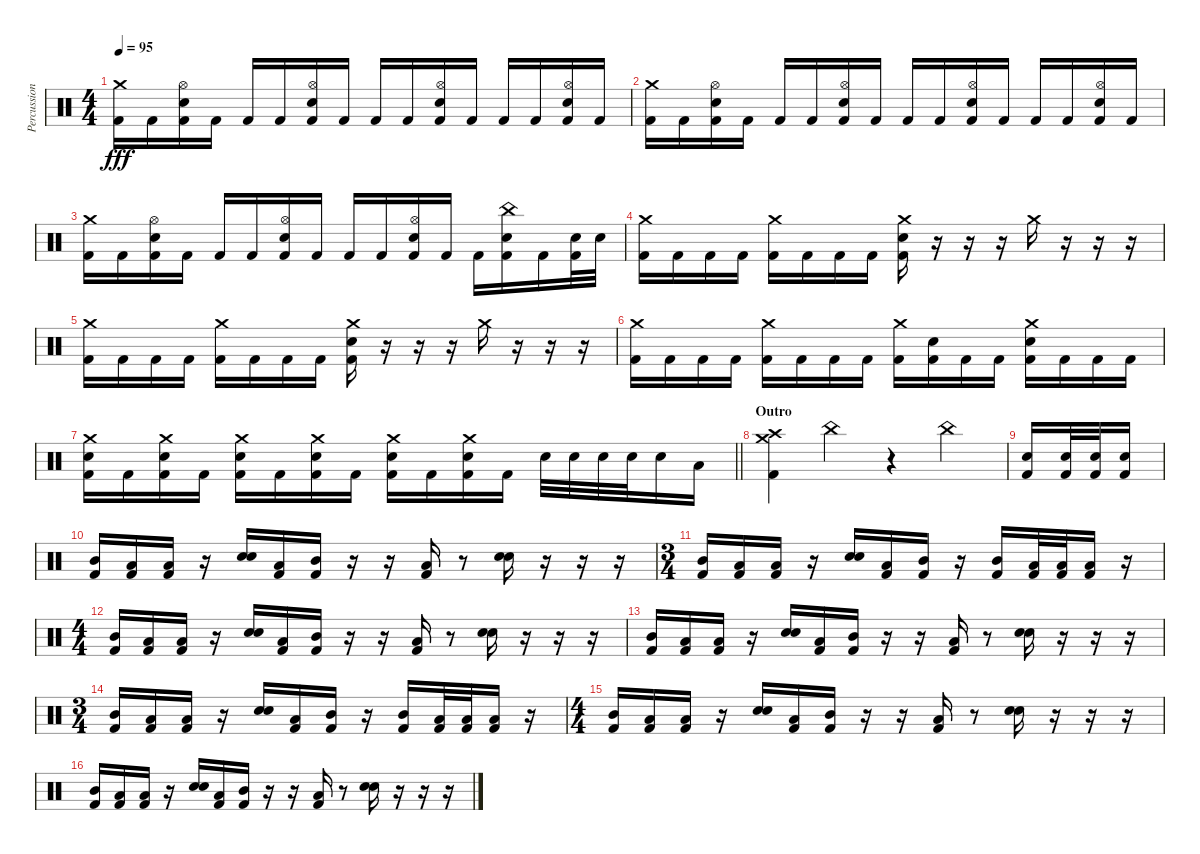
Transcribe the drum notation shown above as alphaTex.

\track ("Percussion" "Percussion") {instrument percussion}
\staff {score}
\articulation defaults
\ts (4 4)
\tempo 95
\clef neutral
\ks c
("Crash medium (hit)" "Kick (hit) 2").16{dy fff} "Kick (hit) 2".16 ("Hi-Hat (open)" "Electric Snare (hit)" "Kick (hit) 2").16 "Kick (hit) 2".16 "Kick (hit) 2".16 "Kick (hit) 2".16 ("Hi-Hat (open)" "Electric Snare (hit)" "Kick (hit) 2").16 "Kick (hit) 2".16 "Kick (hit) 2".16 "Kick (hit) 2".16 ("Hi-Hat (open)" "Electric Snare (hit)" "Kick (hit) 2").16 "Kick (hit) 2".16 "Kick (hit) 2".16 "Kick (hit) 2".16 ("Hi-Hat (open)" "Electric Snare (hit)" "Kick (hit) 2").16 "Kick (hit) 2".16 |
("Crash medium (hit)" "Kick (hit) 2").16 "Kick (hit) 2".16 ("Hi-Hat (open)" "Electric Snare (hit)" "Kick (hit) 2").16 "Kick (hit) 2".16 "Kick (hit) 2".16 "Kick (hit) 2".16 ("Hi-Hat (open)" "Electric Snare (hit)" "Kick (hit) 2").16 "Kick (hit) 2".16 "Kick (hit) 2".16 "Kick (hit) 2".16 ("Hi-Hat (open)" "Electric Snare (hit)" "Kick (hit) 2").16 "Kick (hit) 2".16 "Kick (hit) 2".16 "Kick (hit) 2".16 ("Hi-Hat (open)" "Electric Snare (hit)" "Kick (hit) 2").16 "Kick (hit) 2".16 |
("Crash medium (hit)" "Kick (hit) 2").16 "Kick (hit) 2".16 ("Hi-Hat (open)" "Electric Snare (hit)" "Kick (hit) 2").16 "Kick (hit) 2".16 "Kick (hit) 2".16 "Kick (hit) 2".16 ("Hi-Hat (open)" "Electric Snare (hit)" "Kick (hit) 2").16 "Kick (hit) 2".16 "Kick (hit) 2".16 "Kick (hit) 2".16 ("Hi-Hat (open)" "Electric Snare (hit)" "Kick (hit) 2").16 "Kick (hit) 2".16 "Kick (hit) 2".16 ("China (hit)" "Electric Snare (hit)" "Kick (hit) 2").16 "Kick (hit) 2".16 ("Electric Snare (hit)" "Kick (hit) 2").32 "Electric Snare (hit)".32 |
("Crash medium (hit)" "Kick (hit) 2").16 "Kick (hit) 2".16 "Kick (hit) 2".16 "Kick (hit) 2".16 ("Crash medium (hit)" "Kick (hit) 2").16 "Kick (hit) 2".16 "Kick (hit) 2".16 "Kick (hit) 2".16 ("Crash medium (hit)" "Electric Snare (hit)" "Kick (hit) 2").16 r.16 r.16 r.16 "Crash medium (hit)".16 r.16 r.16 r.16 |
("Crash medium (hit)" "Kick (hit) 2").16 "Kick (hit) 2".16 "Kick (hit) 2".16 "Kick (hit) 2".16 ("Crash medium (hit)" "Kick (hit) 2").16 "Kick (hit) 2".16 "Kick (hit) 2".16 "Kick (hit) 2".16 ("Crash medium (hit)" "Electric Snare (hit)" "Kick (hit) 2").16 r.16 r.16 r.16 "Crash medium (hit)".16 r.16 r.16 r.16 |
("Crash medium (hit)" "Kick (hit) 2").16 "Kick (hit) 2".16 "Kick (hit) 2".16 "Kick (hit) 2".16 ("Crash medium (hit)" "Kick (hit) 2").16 "Kick (hit) 2".16 "Kick (hit) 2".16 "Kick (hit) 2".16 ("Crash medium (hit)" "Kick (hit) 2").16 ("Electric Snare (hit)" "Kick (hit) 2").16 "Kick (hit) 2".16 "Kick (hit) 2".16 ("Crash medium (hit)" "Electric Snare (hit)" "Kick (hit) 2").16 "Kick (hit) 2".16 "Kick (hit) 2".16 "Kick (hit) 2".16 |
\barLineRight lightlight
("Crash medium (hit)" "Electric Snare (hit)" "Kick (hit) 2").16 "Kick (hit) 2".16 ("Crash medium (hit)" "Electric Snare (hit)" "Kick (hit) 2").16 "Kick (hit) 2".16 ("Crash medium (hit)" "Electric Snare (hit)" "Kick (hit) 2").16 "Kick (hit) 2".16 ("Crash medium (hit)" "Electric Snare (hit)" "Kick (hit) 2").16 "Kick (hit) 2".16 ("Crash medium (hit)" "Electric Snare (hit)" "Kick (hit) 2").16 "Kick (hit) 2".16 ("Crash medium (hit)" "Electric Snare (hit)" "Kick (hit) 2").16 "Kick (hit) 2".16 "Electric Snare (hit)".32 "Electric Snare (hit)".32 "Electric Snare (hit)".32 "Electric Snare (hit)".32 "Electric Snare (hit)".16 "Low Floor Tom (hit)".16 |
\section ("" "Outro")
("Crash high (hit)" "Crash medium (hit)" "Kick (hit) 2").4 "China (hit)".4 r.4 "China (hit)".4 |
("Electric Snare (hit)" "Kick (hit) 2").16 ("Electric Snare (hit)" "Kick (hit) 2").32 ("Electric Snare (hit)" "Kick (hit) 2").32 ("Electric Snare (hit)" "Kick (hit) 2").16 |
("Mid Tom (hit)" "Kick (hit) 2").16 ("Low Floor Tom (hit)" "Kick (hit) 2").16 ("Low Floor Tom (hit)" "Kick (hit) 2").16 r.16 ("Hand Clap (hit)" "Electric Snare (hit)").16 ("Low Floor Tom (hit)" "Kick (hit) 2").16 ("Mid Tom (hit)" "Kick (hit) 2").16 r.16 r.16 ("Low Floor Tom (hit)" "Kick (hit) 2").16 r.8 ("Hand Clap (hit)" "Electric Snare (hit)").16 r.16 r.16 r.16 |
\ts (3 4)
("Mid Tom (hit)" "Kick (hit) 2").16 ("Low Floor Tom (hit)" "Kick (hit) 2").16 ("Low Floor Tom (hit)" "Kick (hit) 2").16 r.16 ("Hand Clap (hit)" "Electric Snare (hit)").16 ("Low Floor Tom (hit)" "Kick (hit) 2").16 ("Mid Tom (hit)" "Kick (hit) 2").16 r.16 ("Mid Tom (hit)" "Kick (hit) 2").16 ("Low Floor Tom (hit)" "Kick (hit) 2").32 ("Low Floor Tom (hit)" "Kick (hit) 2").32 ("Low Floor Tom (hit)" "Kick (hit) 2").16 r.16 |
\ts (4 4)
("Mid Tom (hit)" "Kick (hit) 2").16 ("Low Floor Tom (hit)" "Kick (hit) 2").16 ("Low Floor Tom (hit)" "Kick (hit) 2").16 r.16 ("Hand Clap (hit)" "Electric Snare (hit)").16 ("Low Floor Tom (hit)" "Kick (hit) 2").16 ("Mid Tom (hit)" "Kick (hit) 2").16 r.16 r.16 ("Low Floor Tom (hit)" "Kick (hit) 2").16 r.8 ("Hand Clap (hit)" "Electric Snare (hit)").16 r.16 r.16 r.16 |
("Mid Tom (hit)" "Kick (hit) 2").16 ("Low Floor Tom (hit)" "Kick (hit) 2").16 ("Low Floor Tom (hit)" "Kick (hit) 2").16 r.16 ("Hand Clap (hit)" "Electric Snare (hit)").16 ("Low Floor Tom (hit)" "Kick (hit) 2").16 ("Mid Tom (hit)" "Kick (hit) 2").16 r.16 r.16 ("Low Floor Tom (hit)" "Kick (hit) 2").16 r.8 ("Hand Clap (hit)" "Electric Snare (hit)").16 r.16 r.16 r.16 |
\ts (3 4)
("Mid Tom (hit)" "Kick (hit) 2").16 ("Low Floor Tom (hit)" "Kick (hit) 2").16 ("Low Floor Tom (hit)" "Kick (hit) 2").16 r.16 ("Hand Clap (hit)" "Electric Snare (hit)").16 ("Low Floor Tom (hit)" "Kick (hit) 2").16 ("Mid Tom (hit)" "Kick (hit) 2").16 r.16 ("Mid Tom (hit)" "Kick (hit) 2").16 ("Low Floor Tom (hit)" "Kick (hit) 2").32 ("Low Floor Tom (hit)" "Kick (hit) 2").32 ("Low Floor Tom (hit)" "Kick (hit) 2").16 r.16 |
\ts (4 4)
("Mid Tom (hit)" "Kick (hit) 2").16 ("Low Floor Tom (hit)" "Kick (hit) 2").16 ("Low Floor Tom (hit)" "Kick (hit) 2").16 r.16 ("Hand Clap (hit)" "Electric Snare (hit)").16 ("Low Floor Tom (hit)" "Kick (hit) 2").16 ("Mid Tom (hit)" "Kick (hit) 2").16 r.16 r.16 ("Low Floor Tom (hit)" "Kick (hit) 2").16 r.8 ("Hand Clap (hit)" "Electric Snare (hit)").16 r.16 r.16 r.16 |
("Mid Tom (hit)" "Kick (hit) 2").16{volume 7} ("Low Floor Tom (hit)" "Kick (hit) 2").16 ("Low Floor Tom (hit)" "Kick (hit) 2").16 r.16 ("Hand Clap (hit)" "Electric Snare (hit)").16 ("Low Floor Tom (hit)" "Kick (hit) 2").16 ("Mid Tom (hit)" "Kick (hit) 2").16 r.16 r.16 ("Low Floor Tom (hit)" "Kick (hit) 2").16 r.8 ("Hand Clap (hit)" "Electric Snare (hit)").16 r.16 r.16 r.16
